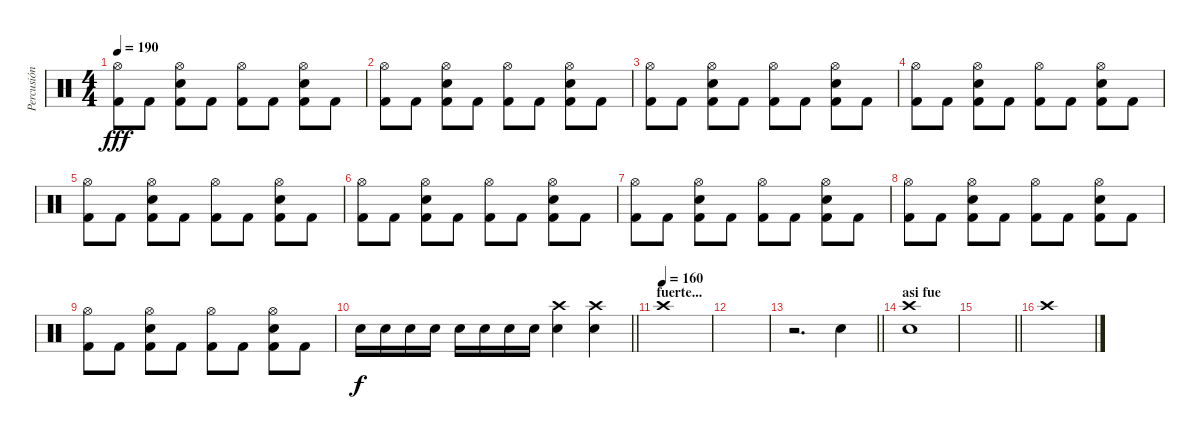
\track ("Percusión" "Percusión") {instrument percussion}
\staff {score}
\articulation defaults
\ts (4 4)
\tempo 190
\clef neutral
\ks c
("Hi-Hat (open)" "Kick (hit) 2").8{dy fff} "Kick (hit) 2".8 ("Hi-Hat (open)" "Electric Snare (hit)" "Kick (hit) 2").8 "Kick (hit) 2".8 ("Hi-Hat (open)" "Kick (hit) 2").8 "Kick (hit) 2".8 ("Hi-Hat (open)" "Electric Snare (hit)" "Kick (hit) 2").8 "Kick (hit) 2".8 |
("Hi-Hat (open)" "Kick (hit) 2").8 "Kick (hit) 2".8 ("Hi-Hat (open)" "Electric Snare (hit)" "Kick (hit) 2").8 "Kick (hit) 2".8 ("Hi-Hat (open)" "Kick (hit) 2").8 "Kick (hit) 2".8 ("Hi-Hat (open)" "Electric Snare (hit)" "Kick (hit) 2").8 "Kick (hit) 2".8 |
("Hi-Hat (open)" "Kick (hit) 2").8 "Kick (hit) 2".8 ("Hi-Hat (open)" "Electric Snare (hit)" "Kick (hit) 2").8 "Kick (hit) 2".8 ("Hi-Hat (open)" "Kick (hit) 2").8 "Kick (hit) 2".8 ("Hi-Hat (open)" "Electric Snare (hit)" "Kick (hit) 2").8 "Kick (hit) 2".8 |
("Hi-Hat (open)" "Kick (hit) 2").8 "Kick (hit) 2".8 ("Hi-Hat (open)" "Electric Snare (hit)" "Kick (hit) 2").8 "Kick (hit) 2".8 ("Hi-Hat (open)" "Kick (hit) 2").8 "Kick (hit) 2".8 ("Hi-Hat (open)" "Electric Snare (hit)" "Kick (hit) 2").8 "Kick (hit) 2".8 |
("Hi-Hat (open)" "Kick (hit) 2").8 "Kick (hit) 2".8 ("Hi-Hat (open)" "Electric Snare (hit)" "Kick (hit) 2").8 "Kick (hit) 2".8 ("Hi-Hat (open)" "Kick (hit) 2").8 "Kick (hit) 2".8 ("Hi-Hat (open)" "Electric Snare (hit)" "Kick (hit) 2").8 "Kick (hit) 2".8 |
("Hi-Hat (open)" "Kick (hit) 2").8 "Kick (hit) 2".8 ("Hi-Hat (open)" "Electric Snare (hit)" "Kick (hit) 2").8 "Kick (hit) 2".8 ("Hi-Hat (open)" "Kick (hit) 2").8 "Kick (hit) 2".8 ("Hi-Hat (open)" "Electric Snare (hit)" "Kick (hit) 2").8 "Kick (hit) 2".8 |
("Hi-Hat (open)" "Kick (hit) 2").8 "Kick (hit) 2".8 ("Hi-Hat (open)" "Electric Snare (hit)" "Kick (hit) 2").8 "Kick (hit) 2".8 ("Hi-Hat (open)" "Kick (hit) 2").8 "Kick (hit) 2".8 ("Hi-Hat (open)" "Electric Snare (hit)" "Kick (hit) 2").8 "Kick (hit) 2".8 |
("Hi-Hat (open)" "Kick (hit) 2").8 "Kick (hit) 2".8 ("Hi-Hat (open)" "Electric Snare (hit)" "Kick (hit) 2").8 "Kick (hit) 2".8 ("Hi-Hat (open)" "Kick (hit) 2").8 "Kick (hit) 2".8 ("Hi-Hat (open)" "Electric Snare (hit)" "Kick (hit) 2").8 "Kick (hit) 2".8 |
("Hi-Hat (open)" "Kick (hit) 2").8 "Kick (hit) 2".8 ("Hi-Hat (open)" "Electric Snare (hit)" "Kick (hit) 2").8 "Kick (hit) 2".8 ("Hi-Hat (open)" "Kick (hit) 2").8 "Kick (hit) 2".8 ("Hi-Hat (open)" "Electric Snare (hit)" "Kick (hit) 2").8 "Kick (hit) 2".8 |
\barLineRight lightlight "Snare (hit) 2".16{dy f} "Snare (hit) 2".16 "Snare (hit) 2".16 "Snare (hit) 2".16 "Snare (hit) 2".16 "Snare (hit) 2".16 "Snare (hit) 2".16 "Snare (hit) 2".16
("Crash high (hit)" "Snare (hit) 2").4 ("Snare (hit) 2" "Crash high (hit)").4 |
\section ("" "fuerte...")
\tempo (160)
"Crash high (hit)".1 |
|
\barLineRight lightlight
r.2{d} "Snare (hit) 2".4 |
\section ("" "asi fue")
("Snare (hit) 2" "Crash high (hit)").1 |
\barLineRight lightlight
|
\section ("" "")
"Crash high (hit)".1
